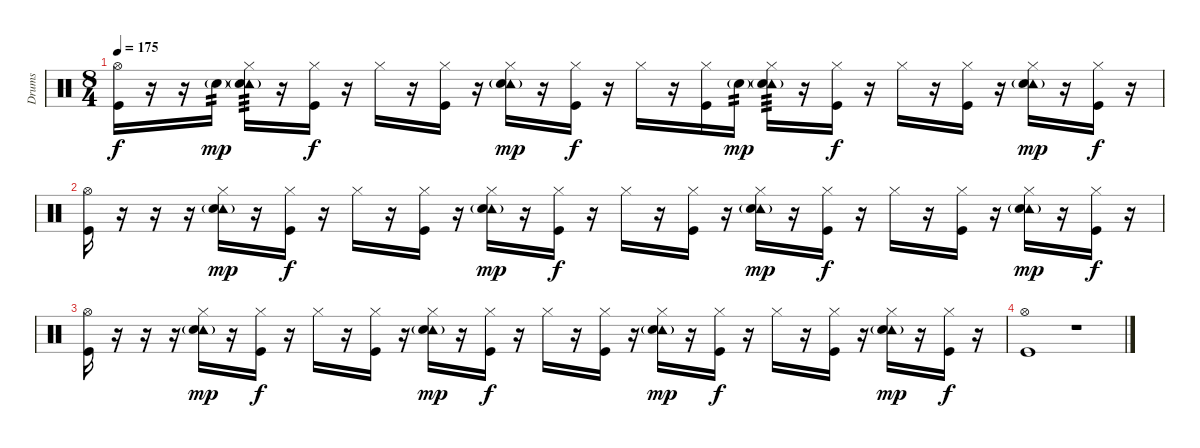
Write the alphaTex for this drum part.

\track ("Drums" "Drums") {instrument percussion}
\staff {score}
\articulation defaults
\ts (8 4)
\tempo 175
\clef neutral
\ks c
("Hi-Hat (open)" "Kick (hit)").16{dy f} r.16 r.16 "Electric Snare (hit)"{g}.16{tp 2 dy mp} ("Tambourine (hit)"{g} "Hi-Hat (closed)" "Electric Snare (hit)").16{tp 3} r.16 ("Hi-Hat (closed)" "Kick (hit)").16{dy f} r.16 "Hi-Hat (closed)".16 r.16 ("Hi-Hat (closed)" "Kick (hit)").16 r.16 ("Tambourine (hit)"{g} "Hi-Hat (closed)" "Electric Snare (hit)").16{dy mp} r.16 ("Hi-Hat (closed)" "Kick (hit)").16{dy f} r.16 "Hi-Hat (closed)".16 r.16 ("Hi-Hat (closed)" "Kick (hit)").16 "Electric Snare (hit)"{g}.16{tp 2 dy mp} ("Tambourine (hit)"{g} "Hi-Hat (closed)" "Electric Snare (hit)").16{tp 3} r.16 ("Hi-Hat (closed)" "Kick (hit)").16{dy f} r.16 "Hi-Hat (closed)".16 r.16 ("Hi-Hat (closed)" "Kick (hit)").16 r.16 ("Tambourine (hit)"{g} "Hi-Hat (closed)" "Electric Snare (hit)").16{dy mp} r.16 ("Hi-Hat (closed)" "Kick (hit)").16{dy f} r.16 |
("Hi-Hat (open)" "Kick (hit)").16 r.16 r.16 r.16 ("Tambourine (hit)"{g} "Hi-Hat (closed)" "Electric Snare (hit)").16{dy mp} r.16 ("Hi-Hat (closed)" "Kick (hit)").16{dy f} r.16 "Hi-Hat (closed)".16 r.16 ("Hi-Hat (closed)" "Kick (hit)").16 r.16 ("Tambourine (hit)"{g} "Hi-Hat (closed)" "Electric Snare (hit)").16{dy mp} r.16 ("Hi-Hat (closed)" "Kick (hit)").16{dy f} r.16 "Hi-Hat (closed)".16 r.16 ("Hi-Hat (closed)" "Kick (hit)").16 r.16 ("Tambourine (hit)"{g} "Hi-Hat (closed)" "Electric Snare (hit)").16{dy mp} r.16 ("Hi-Hat (closed)" "Kick (hit)").16{dy f} r.16 "Hi-Hat (closed)".16 r.16 ("Hi-Hat (closed)" "Kick (hit)").16 r.16 ("Tambourine (hit)"{g} "Hi-Hat (closed)" "Electric Snare (hit)").16{dy mp} r.16 ("Hi-Hat (closed)" "Kick (hit)").16{dy f} r.16 |
("Hi-Hat (open)" "Kick (hit)").16 r.16 r.16 r.16 ("Tambourine (hit)"{g} "Hi-Hat (closed)" "Electric Snare (hit)").16{dy mp} r.16 ("Hi-Hat (closed)" "Kick (hit)").16{dy f} r.16 "Hi-Hat (closed)".16 r.16 ("Hi-Hat (closed)" "Kick (hit)").16 r.16 ("Tambourine (hit)"{g} "Hi-Hat (closed)" "Electric Snare (hit)").16{dy mp} r.16 ("Hi-Hat (closed)" "Kick (hit)").16{dy f} r.16 "Hi-Hat (closed)".16 r.16 ("Hi-Hat (closed)" "Kick (hit)").16 r.16 ("Tambourine (hit)"{g} "Hi-Hat (closed)" "Electric Snare (hit)").16{dy mp} r.16 ("Hi-Hat (closed)" "Kick (hit)").16{dy f} r.16 "Hi-Hat (closed)".16 r.16 ("Hi-Hat (closed)" "Kick (hit)").16 r.16 ("Tambourine (hit)"{g} "Hi-Hat (closed)" "Electric Snare (hit)").16{dy mp} r.16 ("Hi-Hat (closed)" "Kick (hit)").16{dy f} r.16 |
("Hi-Hat (open)" "Kick (hit)").1 r.1
